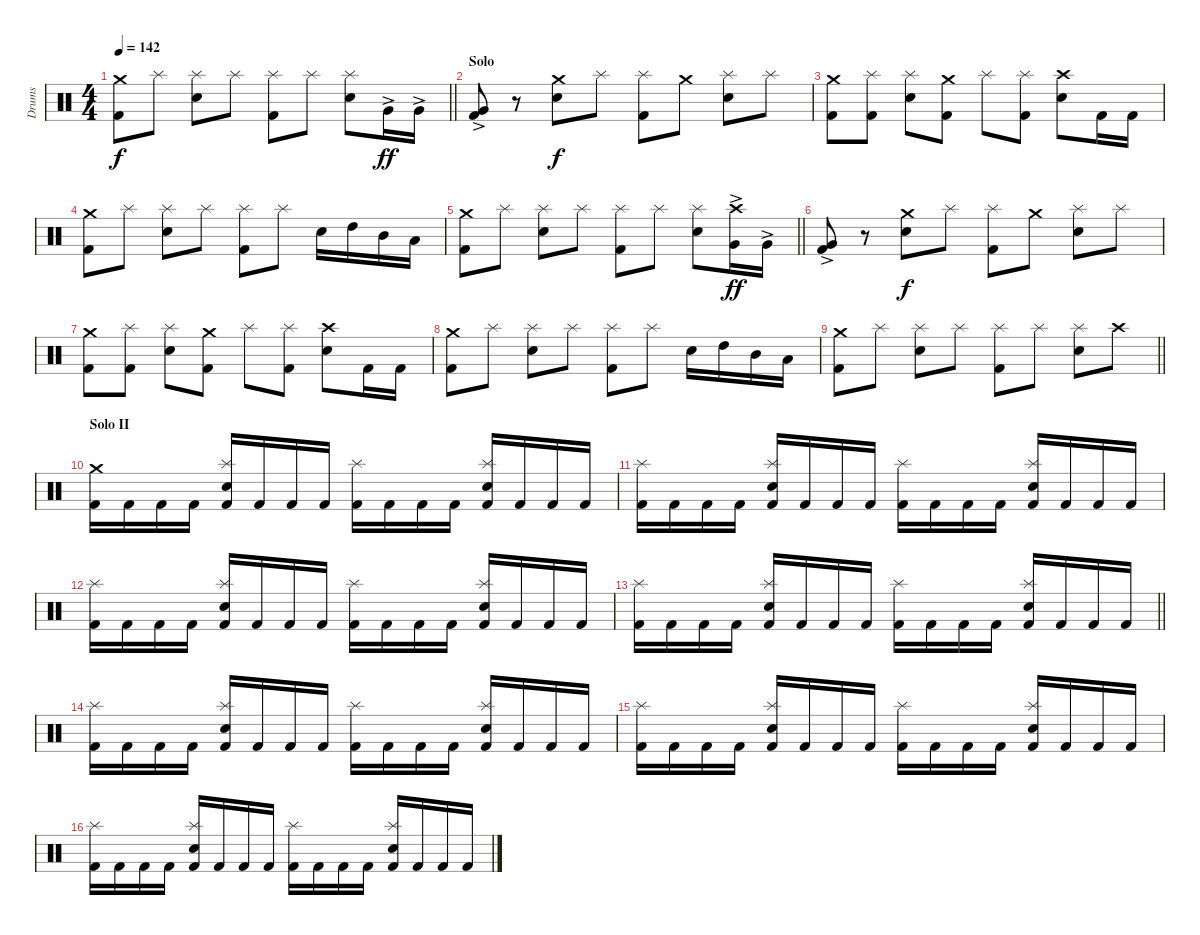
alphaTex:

\track ("Drums" "Drums") {instrument percussion}
\staff {score}
\articulation defaults
\ts (4 4)
\tempo 142
\clef neutral
\barLineRight lightlight
\ks c
("Kick (hit) 2" "Crash medium (hit)").8{dy f} "Splash (hit)".8 ("Snare (hit) 2" "Splash (hit)").8 "Splash (hit)".8 ("Kick (hit) 2" "Splash (hit)").8 "Splash (hit)".8 ("Snare (hit) 2" "Splash (hit)").8 "Very Low Tom (hit)"{ac}.16{dy ff} "Very Low Tom (hit)"{ac}.16 |
\section ("" "Solo")
("Kick (hit) 2" "Very Low Tom (hit)"{ac}).8 r.8 ("Snare (hit) 2" "Crash medium (hit)").8{dy f} "Splash (hit)".8 ("Kick (hit) 2" "Splash (hit)").8 "Crash medium (hit)".8 ("Snare (hit) 2" "Splash (hit)").8 "Splash (hit)".8 |
("Kick (hit) 2" "Crash medium (hit)").8 ("Kick (hit) 2" "Splash (hit)").8 ("Snare (hit) 2" "Splash (hit)").8 ("Kick (hit) 2" "Crash medium (hit)").8 "Splash (hit)".8 ("Kick (hit) 2" "Splash (hit)").8 ("Snare (hit) 2" "Crash high (hit)").8 "Kick (hit) 2".16 "Kick (hit) 2".16 |
("Kick (hit) 2" "Crash medium (hit)").8 "Splash (hit)".8 ("Snare (hit) 2" "Splash (hit)").8 "Splash (hit)".8 ("Kick (hit) 2" "Splash (hit)").8 "Splash (hit)".8 "Snare (hit) 2".16 "High Tom (hit)".16 "Mid Tom (hit)".16 "Low Tom (hit)".16 |
\barLineRight lightlight
("Kick (hit) 2" "Crash medium (hit)").8 "Splash (hit)".8 ("Snare (hit) 2" "Splash (hit)").8 "Splash (hit)".8 ("Kick (hit) 2" "Splash (hit)").8 "Splash (hit)".8 ("Snare (hit) 2" "Splash (hit)").8 ("Very Low Tom (hit)"{ac} "Crash high (hit)").16{dy ff} "Very Low Tom (hit)"{ac}.16 |
\section ("" "")
("Kick (hit) 2" "Very Low Tom (hit)"{ac}).8 r.8 ("Snare (hit) 2" "Crash medium (hit)").8{dy f} "Splash (hit)".8 ("Kick (hit) 2" "Splash (hit)").8 "Crash medium (hit)".8 ("Snare (hit) 2" "Splash (hit)").8 "Splash (hit)".8 |
("Kick (hit) 2" "Crash medium (hit)").8 ("Kick (hit) 2" "Splash (hit)").8 ("Snare (hit) 2" "Splash (hit)").8 ("Kick (hit) 2" "Crash medium (hit)").8 "Splash (hit)".8 ("Kick (hit) 2" "Splash (hit)").8 ("Snare (hit) 2" "Crash high (hit)").8 "Kick (hit) 2".16 "Kick (hit) 2".16 |
("Kick (hit) 2" "Crash medium (hit)").8 "Splash (hit)".8 ("Snare (hit) 2" "Splash (hit)").8 "Splash (hit)".8 ("Kick (hit) 2" "Splash (hit)").8 "Splash (hit)".8 "Snare (hit) 2".16 "High Tom (hit)".16 "Mid Tom (hit)".16 "Low Tom (hit)".16 |
\barLineRight lightlight
("Kick (hit) 2" "Crash medium (hit)").8 "Splash (hit)".8 ("Snare (hit) 2" "Splash (hit)").8 "Splash (hit)".8 ("Kick (hit) 2" "Splash (hit)").8 "Splash (hit)".8 ("Snare (hit) 2" "Splash (hit)").8 "Crash high (hit)".8 |
\section ("" "Solo II")
("Kick (hit) 2" "Crash medium (hit)").16 "Kick (hit) 2".16 "Kick (hit) 2".16 "Kick (hit) 2".16 ("Kick (hit) 2" "Snare (hit) 2" "Splash (hit)").16 "Kick (hit) 2".16 "Kick (hit) 2".16 "Kick (hit) 2".16 ("Kick (hit) 2" "Splash (hit)").16 "Kick (hit) 2".16 "Kick (hit) 2".16 "Kick (hit) 2".16 ("Kick (hit) 2" "Snare (hit) 2" "Splash (hit)").16 "Kick (hit) 2".16 "Kick (hit) 2".16 "Kick (hit) 2".16 |
("Kick (hit) 2" "Splash (hit)").16 "Kick (hit) 2".16 "Kick (hit) 2".16 "Kick (hit) 2".16 ("Kick (hit) 2" "Snare (hit) 2" "Splash (hit)").16 "Kick (hit) 2".16 "Kick (hit) 2".16 "Kick (hit) 2".16 ("Kick (hit) 2" "Splash (hit)").16 "Kick (hit) 2".16 "Kick (hit) 2".16 "Kick (hit) 2".16 ("Kick (hit) 2" "Snare (hit) 2" "Splash (hit)").16 "Kick (hit) 2".16 "Kick (hit) 2".16 "Kick (hit) 2".16 |
("Kick (hit) 2" "Splash (hit)").16 "Kick (hit) 2".16 "Kick (hit) 2".16 "Kick (hit) 2".16 ("Kick (hit) 2" "Snare (hit) 2" "Splash (hit)").16 "Kick (hit) 2".16 "Kick (hit) 2".16 "Kick (hit) 2".16 ("Kick (hit) 2" "Splash (hit)").16 "Kick (hit) 2".16 "Kick (hit) 2".16 "Kick (hit) 2".16 ("Kick (hit) 2" "Snare (hit) 2" "Splash (hit)").16 "Kick (hit) 2".16 "Kick (hit) 2".16 "Kick (hit) 2".16 |
\barLineRight lightlight
("Kick (hit) 2" "Splash (hit)").16 "Kick (hit) 2".16 "Kick (hit) 2".16 "Kick (hit) 2".16 ("Kick (hit) 2" "Snare (hit) 2" "Splash (hit)").16 "Kick (hit) 2".16 "Kick (hit) 2".16 "Kick (hit) 2".16 ("Kick (hit) 2" "Splash (hit)").16 "Kick (hit) 2".16 "Kick (hit) 2".16 "Kick (hit) 2".16 ("Kick (hit) 2" "Snare (hit) 2" "Splash (hit)").16 "Kick (hit) 2".16 "Kick (hit) 2".16 "Kick (hit) 2".16 |
\section ("" "")
("Kick (hit) 2" "Splash (hit)").16 "Kick (hit) 2".16 "Kick (hit) 2".16 "Kick (hit) 2".16 ("Kick (hit) 2" "Snare (hit) 2" "Splash (hit)").16 "Kick (hit) 2".16 "Kick (hit) 2".16 "Kick (hit) 2".16 ("Kick (hit) 2" "Splash (hit)").16 "Kick (hit) 2".16 "Kick (hit) 2".16 "Kick (hit) 2".16 ("Kick (hit) 2" "Snare (hit) 2" "Splash (hit)").16 "Kick (hit) 2".16 "Kick (hit) 2".16 "Kick (hit) 2".16 |
("Kick (hit) 2" "Splash (hit)").16 "Kick (hit) 2".16 "Kick (hit) 2".16 "Kick (hit) 2".16 ("Kick (hit) 2" "Snare (hit) 2" "Splash (hit)").16 "Kick (hit) 2".16 "Kick (hit) 2".16 "Kick (hit) 2".16 ("Kick (hit) 2" "Splash (hit)").16 "Kick (hit) 2".16 "Kick (hit) 2".16 "Kick (hit) 2".16 ("Kick (hit) 2" "Snare (hit) 2" "Splash (hit)").16 "Kick (hit) 2".16 "Kick (hit) 2".16 "Kick (hit) 2".16 |
("Kick (hit) 2" "Splash (hit)").16 "Kick (hit) 2".16 "Kick (hit) 2".16 "Kick (hit) 2".16 ("Kick (hit) 2" "Snare (hit) 2" "Splash (hit)").16 "Kick (hit) 2".16 "Kick (hit) 2".16 "Kick (hit) 2".16 ("Kick (hit) 2" "Splash (hit)").16 "Kick (hit) 2".16 "Kick (hit) 2".16 "Kick (hit) 2".16 ("Kick (hit) 2" "Snare (hit) 2" "Splash (hit)").16 "Kick (hit) 2".16 "Kick (hit) 2".16 "Kick (hit) 2".16
